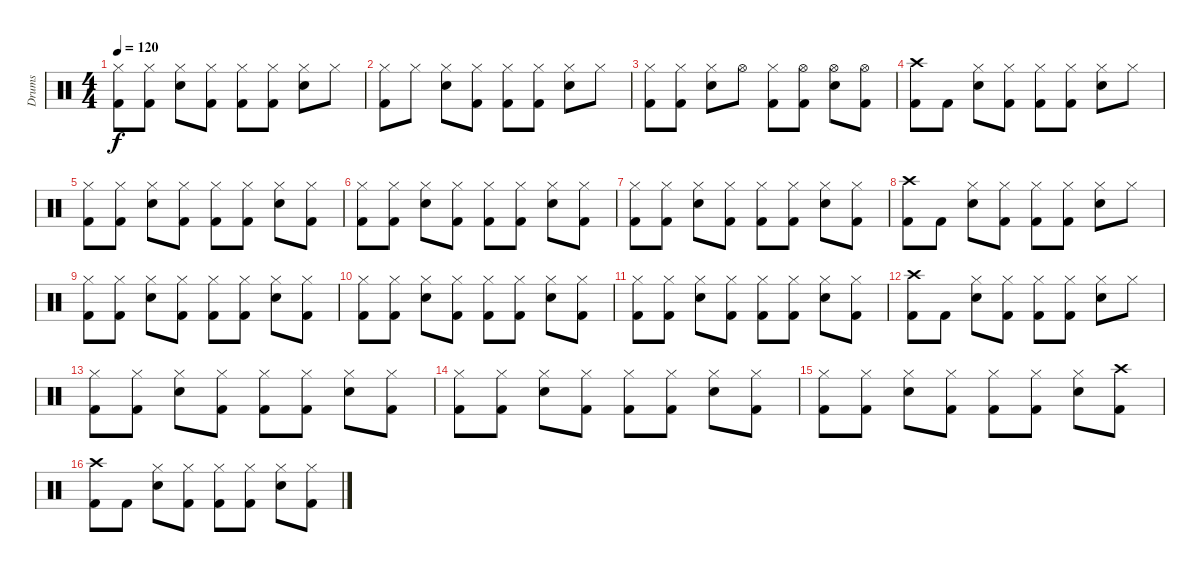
\track ("Drums" "Drums") {instrument percussion}
\staff {score}
\articulation defaults
\ts (4 4)
\tempo 120
\clef neutral
\ks c
("Hi-Hat (closed)" "Kick (hit) 2").8{dy f} ("Hi-Hat (closed)" "Kick (hit) 2").8 ("Hi-Hat (closed)" "Electric Snare (hit)").8 ("Hi-Hat (closed)" "Kick (hit) 2").8 ("Hi-Hat (closed)" "Kick (hit) 2").8 ("Hi-Hat (closed)" "Kick (hit) 2").8 ("Hi-Hat (closed)" "Electric Snare (hit)").8 "Hi-Hat (closed)".8 |
("Hi-Hat (closed)" "Kick (hit) 2").8 "Hi-Hat (closed)".8 ("Hi-Hat (closed)" "Electric Snare (hit)").8 ("Hi-Hat (closed)" "Kick (hit) 2").8 ("Hi-Hat (closed)" "Kick (hit) 2").8 ("Hi-Hat (closed)" "Kick (hit) 2").8 ("Hi-Hat (closed)" "Electric Snare (hit)").8 "Hi-Hat (closed)".8 |
("Hi-Hat (closed)" "Kick (hit) 2").8 ("Hi-Hat (closed)" "Kick (hit) 2").8 ("Hi-Hat (closed)" "Electric Snare (hit)").8 "Hi-Hat (open)".8 ("Hi-Hat (closed)" "Kick (hit) 2").8 ("Hi-Hat (open)" "Kick (hit) 2").8 ("Hi-Hat (open)" "Electric Snare (hit)").8 ("Hi-Hat (open)" "Kick (hit) 2").8 |
("Crash high (hit)" "Kick (hit) 2").8 "Kick (hit) 2".8 ("Hi-Hat (closed)" "Electric Snare (hit)").8 ("Hi-Hat (closed)" "Kick (hit) 2").8 ("Hi-Hat (closed)" "Kick (hit) 2").8 ("Hi-Hat (closed)" "Kick (hit) 2").8 ("Hi-Hat (closed)" "Electric Snare (hit)").8 "Hi-Hat (closed)".8 |
("Hi-Hat (closed)" "Kick (hit) 2").8 ("Hi-Hat (closed)" "Kick (hit) 2").8 ("Hi-Hat (closed)" "Electric Snare (hit)").8 ("Hi-Hat (closed)" "Kick (hit) 2").8 ("Hi-Hat (closed)" "Kick (hit) 2").8 ("Hi-Hat (closed)" "Kick (hit) 2").8 ("Hi-Hat (closed)" "Electric Snare (hit)").8 ("Hi-Hat (closed)" "Kick (hit) 2").8 |
("Hi-Hat (closed)" "Kick (hit) 2").8 ("Hi-Hat (closed)" "Kick (hit) 2").8 ("Hi-Hat (closed)" "Electric Snare (hit)").8 ("Hi-Hat (closed)" "Kick (hit) 2").8 ("Hi-Hat (closed)" "Kick (hit) 2").8 ("Hi-Hat (closed)" "Kick (hit) 2").8 ("Hi-Hat (closed)" "Electric Snare (hit)").8 ("Hi-Hat (closed)" "Kick (hit) 2").8 |
("Hi-Hat (closed)" "Kick (hit) 2").8 ("Hi-Hat (closed)" "Kick (hit) 2").8 ("Hi-Hat (closed)" "Electric Snare (hit)").8 ("Hi-Hat (closed)" "Kick (hit) 2").8 ("Hi-Hat (closed)" "Kick (hit) 2").8 ("Hi-Hat (closed)" "Kick (hit) 2").8 ("Hi-Hat (closed)" "Electric Snare (hit)").8 ("Hi-Hat (closed)" "Kick (hit) 2").8 |
("Crash high (hit)" "Kick (hit) 2").8 "Kick (hit) 2".8 ("Hi-Hat (closed)" "Electric Snare (hit)").8 ("Hi-Hat (closed)" "Kick (hit) 2").8 ("Hi-Hat (closed)" "Kick (hit) 2").8 ("Hi-Hat (closed)" "Kick (hit) 2").8 ("Hi-Hat (closed)" "Electric Snare (hit)").8 "Hi-Hat (closed)".8 |
("Hi-Hat (closed)" "Kick (hit) 2").8 ("Hi-Hat (closed)" "Kick (hit) 2").8 ("Hi-Hat (closed)" "Electric Snare (hit)").8 ("Hi-Hat (closed)" "Kick (hit) 2").8 ("Hi-Hat (closed)" "Kick (hit) 2").8 ("Hi-Hat (closed)" "Kick (hit) 2").8 ("Hi-Hat (closed)" "Electric Snare (hit)").8 ("Hi-Hat (closed)" "Kick (hit) 2").8 |
("Hi-Hat (closed)" "Kick (hit) 2").8 ("Hi-Hat (closed)" "Kick (hit) 2").8 ("Hi-Hat (closed)" "Electric Snare (hit)").8 ("Hi-Hat (closed)" "Kick (hit) 2").8 ("Hi-Hat (closed)" "Kick (hit) 2").8 ("Hi-Hat (closed)" "Kick (hit) 2").8 ("Hi-Hat (closed)" "Electric Snare (hit)").8 ("Hi-Hat (closed)" "Kick (hit) 2").8 |
("Hi-Hat (closed)" "Kick (hit) 2").8 ("Hi-Hat (closed)" "Kick (hit) 2").8 ("Hi-Hat (closed)" "Electric Snare (hit)").8 ("Hi-Hat (closed)" "Kick (hit) 2").8 ("Hi-Hat (closed)" "Kick (hit) 2").8 ("Hi-Hat (closed)" "Kick (hit) 2").8 ("Hi-Hat (closed)" "Electric Snare (hit)").8 ("Hi-Hat (closed)" "Kick (hit) 2").8 |
("Crash high (hit)" "Kick (hit) 2").8 "Kick (hit) 2".8 ("Hi-Hat (closed)" "Electric Snare (hit)").8 ("Hi-Hat (closed)" "Kick (hit) 2").8 ("Hi-Hat (closed)" "Kick (hit) 2").8 ("Hi-Hat (closed)" "Kick (hit) 2").8 ("Hi-Hat (closed)" "Electric Snare (hit)").8 "Hi-Hat (closed)".8 |
("Hi-Hat (closed)" "Kick (hit) 2").8 ("Hi-Hat (closed)" "Kick (hit) 2").8 ("Hi-Hat (closed)" "Electric Snare (hit)").8 ("Hi-Hat (closed)" "Kick (hit) 2").8 ("Hi-Hat (closed)" "Kick (hit) 2").8 ("Hi-Hat (closed)" "Kick (hit) 2").8 ("Hi-Hat (closed)" "Electric Snare (hit)").8 ("Hi-Hat (closed)" "Kick (hit) 2").8 |
("Hi-Hat (closed)" "Kick (hit) 2").8 ("Hi-Hat (closed)" "Kick (hit) 2").8 ("Hi-Hat (closed)" "Electric Snare (hit)").8 ("Hi-Hat (closed)" "Kick (hit) 2").8 ("Hi-Hat (closed)" "Kick (hit) 2").8 ("Hi-Hat (closed)" "Kick (hit) 2").8 ("Hi-Hat (closed)" "Electric Snare (hit)").8 ("Hi-Hat (closed)" "Kick (hit) 2").8 |
("Hi-Hat (closed)" "Kick (hit) 2").8 ("Hi-Hat (closed)" "Kick (hit) 2").8 ("Hi-Hat (closed)" "Electric Snare (hit)").8 ("Hi-Hat (closed)" "Kick (hit) 2").8 ("Hi-Hat (closed)" "Kick (hit) 2").8 ("Hi-Hat (closed)" "Kick (hit) 2").8 ("Hi-Hat (closed)" "Electric Snare (hit)").8 ("Crash high (hit)" "Kick (hit) 2").8 |
("Crash high (hit)" "Kick (hit) 2").8 "Kick (hit) 2".8 ("Hi-Hat (closed)" "Electric Snare (hit)").8 ("Hi-Hat (closed)" "Kick (hit) 2").8 ("Hi-Hat (closed)" "Kick (hit) 2").8 ("Hi-Hat (closed)" "Kick (hit) 2").8 ("Hi-Hat (closed)" "Electric Snare (hit)").8 ("Hi-Hat (closed)" "Kick (hit) 2").8
